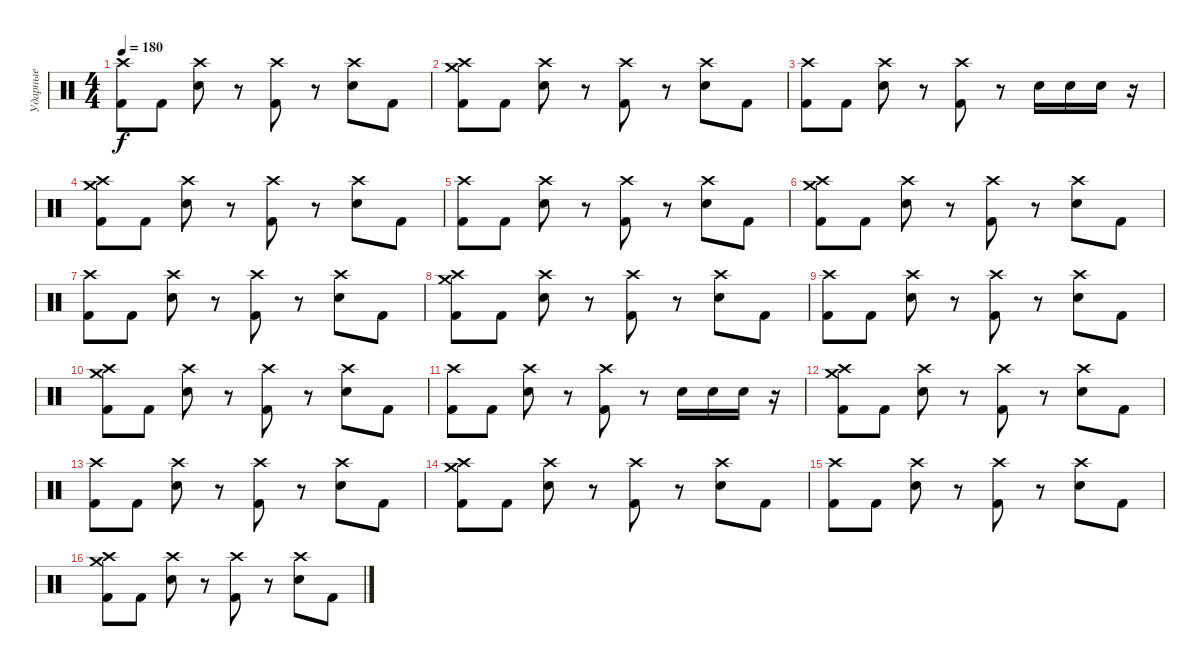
\track ("Ударные" "Ударные") {instrument percussion}
\staff {score}
\articulation defaults
\ts (4 4)
\tempo 180
\clef neutral
\ks c
("Crash high (hit)" "Kick (hit) 2").8{dy f} "Kick (hit) 2".8 ("Crash high (hit)" "Snare (hit) 2").8 r.8 ("Crash high (hit)" "Kick (hit) 2").8 r.8 ("Crash high (hit)" "Snare (hit) 2").8 "Kick (hit) 2".8 |
("Crash medium (hit)" "Crash high (hit)" "Kick (hit) 2").8 "Kick (hit) 2".8 ("Crash high (hit)" "Snare (hit) 2").8 r.8 ("Crash high (hit)" "Kick (hit) 2").8 r.8 ("Crash high (hit)" "Snare (hit) 2").8 "Kick (hit) 2".8 |
("Crash high (hit)" "Kick (hit) 2").8 "Kick (hit) 2".8 ("Crash high (hit)" "Snare (hit) 2").8 r.8 ("Crash high (hit)" "Kick (hit) 2").8 r.8 "Snare (hit) 2".16 "Snare (hit) 2".16 "Snare (hit) 2".16 r.16 |
("Crash medium (hit)" "Crash high (hit)" "Kick (hit) 2").8 "Kick (hit) 2".8 ("Crash high (hit)" "Snare (hit) 2").8 r.8 ("Crash high (hit)" "Kick (hit) 2").8 r.8 ("Crash high (hit)" "Snare (hit) 2").8 "Kick (hit) 2".8 |
("Crash high (hit)" "Kick (hit) 2").8 "Kick (hit) 2".8 ("Crash high (hit)" "Snare (hit) 2").8 r.8 ("Crash high (hit)" "Kick (hit) 2").8 r.8 ("Crash high (hit)" "Snare (hit) 2").8 "Kick (hit) 2".8 |
("Crash medium (hit)" "Crash high (hit)" "Kick (hit) 2").8 "Kick (hit) 2".8 ("Crash high (hit)" "Snare (hit) 2").8 r.8 ("Crash high (hit)" "Kick (hit) 2").8 r.8 ("Crash high (hit)" "Snare (hit) 2").8 "Kick (hit) 2".8 |
("Crash high (hit)" "Kick (hit) 2").8 "Kick (hit) 2".8 ("Crash high (hit)" "Snare (hit) 2").8 r.8 ("Crash high (hit)" "Kick (hit) 2").8 r.8 ("Crash high (hit)" "Snare (hit) 2").8 "Kick (hit) 2".8 |
("Crash medium (hit)" "Crash high (hit)" "Kick (hit) 2").8 "Kick (hit) 2".8 ("Crash high (hit)" "Snare (hit) 2").8 r.8 ("Crash high (hit)" "Kick (hit) 2").8 r.8 ("Crash high (hit)" "Snare (hit) 2").8 "Kick (hit) 2".8 |
("Crash high (hit)" "Kick (hit) 2").8 "Kick (hit) 2".8 ("Crash high (hit)" "Snare (hit) 2").8 r.8 ("Crash high (hit)" "Kick (hit) 2").8 r.8 ("Crash high (hit)" "Snare (hit) 2").8 "Kick (hit) 2".8 |
("Crash medium (hit)" "Crash high (hit)" "Kick (hit) 2").8 "Kick (hit) 2".8 ("Crash high (hit)" "Snare (hit) 2").8 r.8 ("Crash high (hit)" "Kick (hit) 2").8 r.8 ("Crash high (hit)" "Snare (hit) 2").8 "Kick (hit) 2".8 |
("Crash high (hit)" "Kick (hit) 2").8 "Kick (hit) 2".8 ("Crash high (hit)" "Snare (hit) 2").8 r.8 ("Crash high (hit)" "Kick (hit) 2").8 r.8 "Snare (hit) 2".16 "Snare (hit) 2".16 "Snare (hit) 2".16 r.16 |
("Crash medium (hit)" "Crash high (hit)" "Kick (hit) 2").8 "Kick (hit) 2".8 ("Crash high (hit)" "Snare (hit) 2").8 r.8 ("Crash high (hit)" "Kick (hit) 2").8 r.8 ("Crash high (hit)" "Snare (hit) 2").8 "Kick (hit) 2".8 |
("Crash high (hit)" "Kick (hit) 2").8 "Kick (hit) 2".8 ("Crash high (hit)" "Snare (hit) 2").8 r.8 ("Crash high (hit)" "Kick (hit) 2").8 r.8 ("Crash high (hit)" "Snare (hit) 2").8 "Kick (hit) 2".8 |
("Crash medium (hit)" "Crash high (hit)" "Kick (hit) 2").8 "Kick (hit) 2".8 ("Crash high (hit)" "Snare (hit) 2").8 r.8 ("Crash high (hit)" "Kick (hit) 2").8 r.8 ("Crash high (hit)" "Snare (hit) 2").8 "Kick (hit) 2".8 |
("Crash high (hit)" "Kick (hit) 2").8 "Kick (hit) 2".8 ("Crash high (hit)" "Snare (hit) 2").8 r.8 ("Crash high (hit)" "Kick (hit) 2").8 r.8 ("Crash high (hit)" "Snare (hit) 2").8 "Kick (hit) 2".8 |
("Crash medium (hit)" "Crash high (hit)" "Kick (hit) 2").8 "Kick (hit) 2".8 ("Crash high (hit)" "Snare (hit) 2").8 r.8 ("Crash high (hit)" "Kick (hit) 2").8 r.8 ("Crash high (hit)" "Snare (hit) 2").8 "Kick (hit) 2".8
